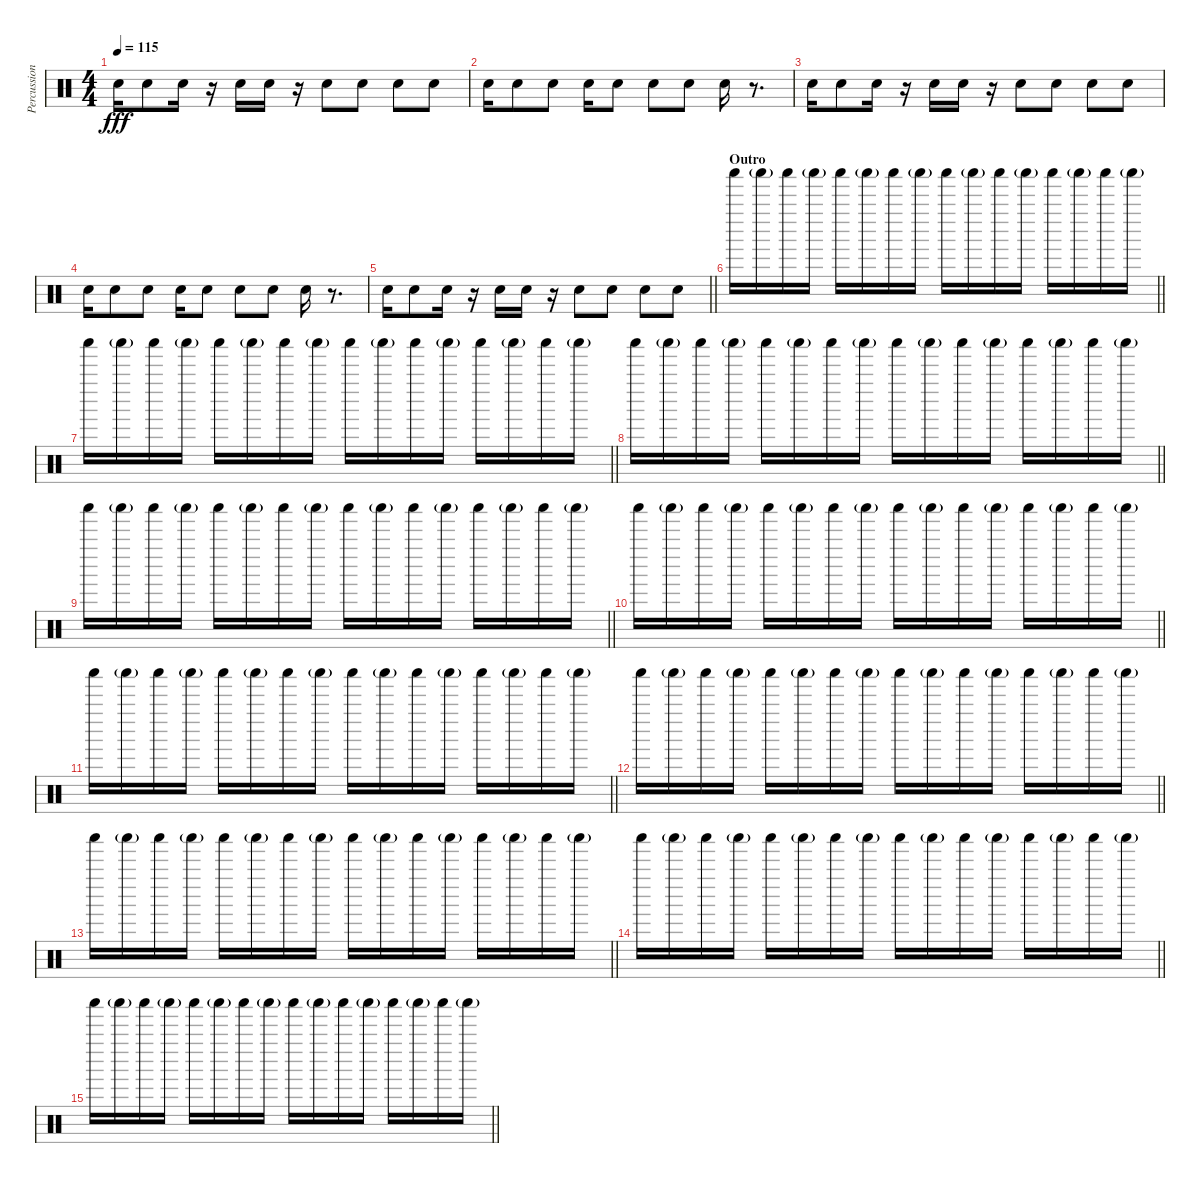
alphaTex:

\track ("Percussion 1" "Percussion") {instrument percussion}
\staff {score}
\articulation defaults
\ts (4 4)
\tempo 115
\clef neutral
\ks c "Hand Clap (hit)".16{dy fff} "Hand Clap (hit)".8 "Hand Clap (hit)".16
r.16 "Hand Clap (hit)".16 "Hand Clap (hit)".16 r.16 "Hand Clap (hit)".8 "Hand Clap (hit)".8 "Hand Clap (hit)".8 "Hand Clap (hit)".8 |
"Hand Clap (hit)".16 "Hand Clap (hit)".8 "Hand Clap (hit)".8 "Hand Clap (hit)".16 "Hand Clap (hit)".8 "Hand Clap (hit)".8 "Hand Clap (hit)".8 "Hand Clap (hit)".16 r.8{d} |
"Hand Clap (hit)".16 "Hand Clap (hit)".8 "Hand Clap (hit)".16 r.16 "Hand Clap (hit)".16 "Hand Clap (hit)".16 r.16 "Hand Clap (hit)".8 "Hand Clap (hit)".8 "Hand Clap (hit)".8 "Hand Clap (hit)".8 |
"Hand Clap (hit)".16 "Hand Clap (hit)".8 "Hand Clap (hit)".8 "Hand Clap (hit)".16 "Hand Clap (hit)".8 "Hand Clap (hit)".8 "Hand Clap (hit)".8 "Hand Clap (hit)".16 r.8{d} |
\barLineRight lightlight "Hand Clap (hit)".16 "Hand Clap (hit)".8 "Hand Clap (hit)".16
r.16 "Hand Clap (hit)".16 "Hand Clap (hit)".16 r.16 "Hand Clap (hit)".8 "Hand Clap (hit)".8 "Hand Clap (hit)".8 "Hand Clap (hit)".8 |
\section ("" "Outro")
\barLineRight lightlight "Shaker (hit)".16 "Shaker (hit)"{g}.16 "Shaker (hit)".16 "Shaker (hit)"{g}.16 "Shaker (hit)".16 "Shaker (hit)"{g}.16 "Shaker (hit)".16 "Shaker (hit)"{g}.16 "Shaker (hit)".16 "Shaker (hit)"{g}.16 "Shaker (hit)".16 "Shaker (hit)"{g}.16 "Shaker (hit)".16 "Shaker (hit)"{g}.16 "Shaker (hit)".16 "Shaker (hit)"{g}.16
|
\barLineRight lightlight "Shaker (hit)".16 "Shaker (hit)"{g}.16 "Shaker (hit)".16 "Shaker (hit)"{g}.16 "Shaker (hit)".16 "Shaker (hit)"{g}.16 "Shaker (hit)".16 "Shaker (hit)"{g}.16 "Shaker (hit)".16 "Shaker (hit)"{g}.16 "Shaker (hit)".16 "Shaker (hit)"{g}.16 "Shaker (hit)".16 "Shaker (hit)"{g}.16 "Shaker (hit)".16 "Shaker (hit)"{g}.16
|
\barLineRight lightlight "Shaker (hit)".16 "Shaker (hit)"{g}.16 "Shaker (hit)".16 "Shaker (hit)"{g}.16 "Shaker (hit)".16 "Shaker (hit)"{g}.16 "Shaker (hit)".16 "Shaker (hit)"{g}.16 "Shaker (hit)".16 "Shaker (hit)"{g}.16 "Shaker (hit)".16 "Shaker (hit)"{g}.16 "Shaker (hit)".16 "Shaker (hit)"{g}.16 "Shaker (hit)".16 "Shaker (hit)"{g}.16
|
\barLineRight lightlight "Shaker (hit)".16 "Shaker (hit)"{g}.16 "Shaker (hit)".16 "Shaker (hit)"{g}.16 "Shaker (hit)".16 "Shaker (hit)"{g}.16 "Shaker (hit)".16 "Shaker (hit)"{g}.16 "Shaker (hit)".16 "Shaker (hit)"{g}.16 "Shaker (hit)".16 "Shaker (hit)"{g}.16 "Shaker (hit)".16 "Shaker (hit)"{g}.16 "Shaker (hit)".16 "Shaker (hit)"{g}.16
|
\barLineRight lightlight "Shaker (hit)".16 "Shaker (hit)"{g}.16 "Shaker (hit)".16 "Shaker (hit)"{g}.16 "Shaker (hit)".16 "Shaker (hit)"{g}.16 "Shaker (hit)".16 "Shaker (hit)"{g}.16 "Shaker (hit)".16 "Shaker (hit)"{g}.16 "Shaker (hit)".16 "Shaker (hit)"{g}.16 "Shaker (hit)".16 "Shaker (hit)"{g}.16 "Shaker (hit)".16 "Shaker (hit)"{g}.16
|
\barLineRight lightlight "Shaker (hit)".16 "Shaker (hit)"{g}.16 "Shaker (hit)".16 "Shaker (hit)"{g}.16 "Shaker (hit)".16 "Shaker (hit)"{g}.16 "Shaker (hit)".16 "Shaker (hit)"{g}.16 "Shaker (hit)".16 "Shaker (hit)"{g}.16 "Shaker (hit)".16 "Shaker (hit)"{g}.16 "Shaker (hit)".16 "Shaker (hit)"{g}.16 "Shaker (hit)".16 "Shaker (hit)"{g}.16
|
\barLineRight lightlight "Shaker (hit)".16 "Shaker (hit)"{g}.16 "Shaker (hit)".16 "Shaker (hit)"{g}.16 "Shaker (hit)".16 "Shaker (hit)"{g}.16 "Shaker (hit)".16 "Shaker (hit)"{g}.16 "Shaker (hit)".16 "Shaker (hit)"{g}.16 "Shaker (hit)".16 "Shaker (hit)"{g}.16 "Shaker (hit)".16 "Shaker (hit)"{g}.16 "Shaker (hit)".16 "Shaker (hit)"{g}.16
|
\barLineRight lightlight "Shaker (hit)".16 "Shaker (hit)"{g}.16 "Shaker (hit)".16 "Shaker (hit)"{g}.16 "Shaker (hit)".16 "Shaker (hit)"{g}.16 "Shaker (hit)".16 "Shaker (hit)"{g}.16 "Shaker (hit)".16 "Shaker (hit)"{g}.16 "Shaker (hit)".16 "Shaker (hit)"{g}.16 "Shaker (hit)".16 "Shaker (hit)"{g}.16 "Shaker (hit)".16 "Shaker (hit)"{g}.16
|
\barLineRight lightlight "Shaker (hit)".16 "Shaker (hit)"{g}.16 "Shaker (hit)".16 "Shaker (hit)"{g}.16 "Shaker (hit)".16 "Shaker (hit)"{g}.16 "Shaker (hit)".16 "Shaker (hit)"{g}.16 "Shaker (hit)".16 "Shaker (hit)"{g}.16 "Shaker (hit)".16 "Shaker (hit)"{g}.16 "Shaker (hit)".16 "Shaker (hit)"{g}.16 "Shaker (hit)".16 "Shaker (hit)"{g}.16
|
\barLineRight lightlight "Shaker (hit)".16 "Shaker (hit)"{g}.16 "Shaker (hit)".16 "Shaker (hit)"{g}.16 "Shaker (hit)".16 "Shaker (hit)"{g}.16 "Shaker (hit)".16 "Shaker (hit)"{g}.16 "Shaker (hit)".16 "Shaker (hit)"{g}.16 "Shaker (hit)".16 "Shaker (hit)"{g}.16 "Shaker (hit)".16 "Shaker (hit)"{g}.16 "Shaker (hit)".16 "Shaker (hit)"{g}.16
